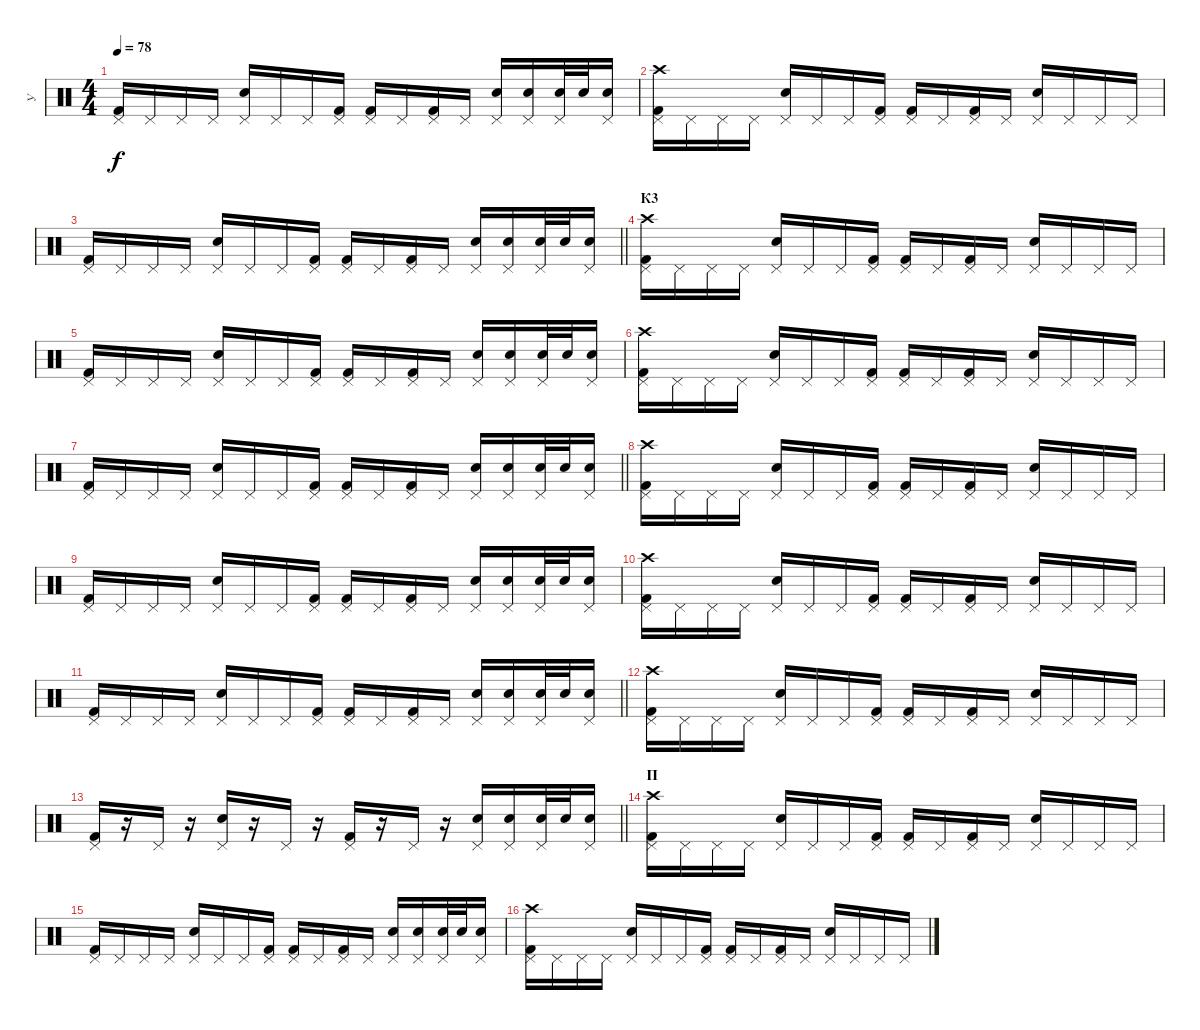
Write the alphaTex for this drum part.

\track ("У" "У") {instrument percussion}
\staff {score}
\articulation defaults
\ts (4 4)
\tempo 78
\clef neutral
\ks c
("Kick (hit) 2" "Pedal Hi-Hat (hit)").16{dy f} "Pedal Hi-Hat (hit)".16 "Pedal Hi-Hat (hit)".16 "Pedal Hi-Hat (hit)".16 ("Electric Snare (hit)" "Pedal Hi-Hat (hit)").16 "Pedal Hi-Hat (hit)".16 "Pedal Hi-Hat (hit)".16 ("Kick (hit) 2" "Pedal Hi-Hat (hit)").16 ("Kick (hit) 2" "Pedal Hi-Hat (hit)").16 "Pedal Hi-Hat (hit)".16 ("Kick (hit) 2" "Pedal Hi-Hat (hit)").16 "Pedal Hi-Hat (hit)".16 ("Electric Snare (hit)" "Pedal Hi-Hat (hit)").16 ("Electric Snare (hit)" "Pedal Hi-Hat (hit)").16 ("Electric Snare (hit)" "Pedal Hi-Hat (hit)").32 "Electric Snare (hit)".32 ("Electric Snare (hit)" "Pedal Hi-Hat (hit)").16 |
("Crash high (hit)" "Kick (hit) 2" "Pedal Hi-Hat (hit)").16 "Pedal Hi-Hat (hit)".16 "Pedal Hi-Hat (hit)".16 "Pedal Hi-Hat (hit)".16 ("Electric Snare (hit)" "Pedal Hi-Hat (hit)").16 "Pedal Hi-Hat (hit)".16 "Pedal Hi-Hat (hit)".16 ("Kick (hit) 2" "Pedal Hi-Hat (hit)").16 ("Kick (hit) 2" "Pedal Hi-Hat (hit)").16 "Pedal Hi-Hat (hit)".16 ("Kick (hit) 2" "Pedal Hi-Hat (hit)").16 "Pedal Hi-Hat (hit)".16 ("Electric Snare (hit)" "Pedal Hi-Hat (hit)").16 "Pedal Hi-Hat (hit)".16 "Pedal Hi-Hat (hit)".16 "Pedal Hi-Hat (hit)".16 |
\barLineRight lightlight
("Kick (hit) 2" "Pedal Hi-Hat (hit)").16 "Pedal Hi-Hat (hit)".16 "Pedal Hi-Hat (hit)".16 "Pedal Hi-Hat (hit)".16 ("Electric Snare (hit)" "Pedal Hi-Hat (hit)").16 "Pedal Hi-Hat (hit)".16 "Pedal Hi-Hat (hit)".16 ("Kick (hit) 2" "Pedal Hi-Hat (hit)").16 ("Kick (hit) 2" "Pedal Hi-Hat (hit)").16 "Pedal Hi-Hat (hit)".16 ("Kick (hit) 2" "Pedal Hi-Hat (hit)").16 "Pedal Hi-Hat (hit)".16 ("Electric Snare (hit)" "Pedal Hi-Hat (hit)").16 ("Electric Snare (hit)" "Pedal Hi-Hat (hit)").16 ("Electric Snare (hit)" "Pedal Hi-Hat (hit)").32 "Electric Snare (hit)".32 ("Electric Snare (hit)" "Pedal Hi-Hat (hit)").16 |
\section ("" "К3")
("Crash high (hit)" "Kick (hit) 2" "Pedal Hi-Hat (hit)").16 "Pedal Hi-Hat (hit)".16 "Pedal Hi-Hat (hit)".16 "Pedal Hi-Hat (hit)".16 ("Electric Snare (hit)" "Pedal Hi-Hat (hit)").16 "Pedal Hi-Hat (hit)".16 "Pedal Hi-Hat (hit)".16 ("Kick (hit) 2" "Pedal Hi-Hat (hit)").16 ("Kick (hit) 2" "Pedal Hi-Hat (hit)").16 "Pedal Hi-Hat (hit)".16 ("Kick (hit) 2" "Pedal Hi-Hat (hit)").16 "Pedal Hi-Hat (hit)".16 ("Electric Snare (hit)" "Pedal Hi-Hat (hit)").16 "Pedal Hi-Hat (hit)".16 "Pedal Hi-Hat (hit)".16 "Pedal Hi-Hat (hit)".16 |
("Kick (hit) 2" "Pedal Hi-Hat (hit)").16 "Pedal Hi-Hat (hit)".16 "Pedal Hi-Hat (hit)".16 "Pedal Hi-Hat (hit)".16 ("Electric Snare (hit)" "Pedal Hi-Hat (hit)").16 "Pedal Hi-Hat (hit)".16 "Pedal Hi-Hat (hit)".16 ("Kick (hit) 2" "Pedal Hi-Hat (hit)").16 ("Kick (hit) 2" "Pedal Hi-Hat (hit)").16 "Pedal Hi-Hat (hit)".16 ("Kick (hit) 2" "Pedal Hi-Hat (hit)").16 "Pedal Hi-Hat (hit)".16 ("Electric Snare (hit)" "Pedal Hi-Hat (hit)").16 ("Electric Snare (hit)" "Pedal Hi-Hat (hit)").16 ("Electric Snare (hit)" "Pedal Hi-Hat (hit)").32 "Electric Snare (hit)".32 ("Electric Snare (hit)" "Pedal Hi-Hat (hit)").16 |
("Crash high (hit)" "Kick (hit) 2" "Pedal Hi-Hat (hit)").16 "Pedal Hi-Hat (hit)".16 "Pedal Hi-Hat (hit)".16 "Pedal Hi-Hat (hit)".16 ("Electric Snare (hit)" "Pedal Hi-Hat (hit)").16 "Pedal Hi-Hat (hit)".16 "Pedal Hi-Hat (hit)".16 ("Kick (hit) 2" "Pedal Hi-Hat (hit)").16 ("Kick (hit) 2" "Pedal Hi-Hat (hit)").16 "Pedal Hi-Hat (hit)".16 ("Kick (hit) 2" "Pedal Hi-Hat (hit)").16 "Pedal Hi-Hat (hit)".16 ("Electric Snare (hit)" "Pedal Hi-Hat (hit)").16 "Pedal Hi-Hat (hit)".16 "Pedal Hi-Hat (hit)".16 "Pedal Hi-Hat (hit)".16 |
\barLineRight lightlight
("Kick (hit) 2" "Pedal Hi-Hat (hit)").16 "Pedal Hi-Hat (hit)".16 "Pedal Hi-Hat (hit)".16 "Pedal Hi-Hat (hit)".16 ("Electric Snare (hit)" "Pedal Hi-Hat (hit)").16 "Pedal Hi-Hat (hit)".16 "Pedal Hi-Hat (hit)".16 ("Kick (hit) 2" "Pedal Hi-Hat (hit)").16 ("Kick (hit) 2" "Pedal Hi-Hat (hit)").16 "Pedal Hi-Hat (hit)".16 ("Kick (hit) 2" "Pedal Hi-Hat (hit)").16 "Pedal Hi-Hat (hit)".16 ("Electric Snare (hit)" "Pedal Hi-Hat (hit)").16 ("Electric Snare (hit)" "Pedal Hi-Hat (hit)").16 ("Electric Snare (hit)" "Pedal Hi-Hat (hit)").32 "Electric Snare (hit)".32 ("Electric Snare (hit)" "Pedal Hi-Hat (hit)").16 |
("Crash high (hit)" "Kick (hit) 2" "Pedal Hi-Hat (hit)").16 "Pedal Hi-Hat (hit)".16 "Pedal Hi-Hat (hit)".16 "Pedal Hi-Hat (hit)".16 ("Electric Snare (hit)" "Pedal Hi-Hat (hit)").16 "Pedal Hi-Hat (hit)".16 "Pedal Hi-Hat (hit)".16 ("Kick (hit) 2" "Pedal Hi-Hat (hit)").16 ("Kick (hit) 2" "Pedal Hi-Hat (hit)").16 "Pedal Hi-Hat (hit)".16 ("Kick (hit) 2" "Pedal Hi-Hat (hit)").16 "Pedal Hi-Hat (hit)".16 ("Electric Snare (hit)" "Pedal Hi-Hat (hit)").16 "Pedal Hi-Hat (hit)".16 "Pedal Hi-Hat (hit)".16 "Pedal Hi-Hat (hit)".16 |
("Kick (hit) 2" "Pedal Hi-Hat (hit)").16 "Pedal Hi-Hat (hit)".16 "Pedal Hi-Hat (hit)".16 "Pedal Hi-Hat (hit)".16 ("Electric Snare (hit)" "Pedal Hi-Hat (hit)").16 "Pedal Hi-Hat (hit)".16 "Pedal Hi-Hat (hit)".16 ("Kick (hit) 2" "Pedal Hi-Hat (hit)").16 ("Kick (hit) 2" "Pedal Hi-Hat (hit)").16 "Pedal Hi-Hat (hit)".16 ("Kick (hit) 2" "Pedal Hi-Hat (hit)").16 "Pedal Hi-Hat (hit)".16 ("Electric Snare (hit)" "Pedal Hi-Hat (hit)").16 ("Electric Snare (hit)" "Pedal Hi-Hat (hit)").16 ("Electric Snare (hit)" "Pedal Hi-Hat (hit)").32 "Electric Snare (hit)".32 ("Electric Snare (hit)" "Pedal Hi-Hat (hit)").16 |
("Crash high (hit)" "Kick (hit) 2" "Pedal Hi-Hat (hit)").16 "Pedal Hi-Hat (hit)".16 "Pedal Hi-Hat (hit)".16 "Pedal Hi-Hat (hit)".16 ("Electric Snare (hit)" "Pedal Hi-Hat (hit)").16 "Pedal Hi-Hat (hit)".16 "Pedal Hi-Hat (hit)".16 ("Kick (hit) 2" "Pedal Hi-Hat (hit)").16 ("Kick (hit) 2" "Pedal Hi-Hat (hit)").16 "Pedal Hi-Hat (hit)".16 ("Kick (hit) 2" "Pedal Hi-Hat (hit)").16 "Pedal Hi-Hat (hit)".16 ("Electric Snare (hit)" "Pedal Hi-Hat (hit)").16 "Pedal Hi-Hat (hit)".16 "Pedal Hi-Hat (hit)".16 "Pedal Hi-Hat (hit)".16 |
\barLineRight lightlight
("Kick (hit) 2" "Pedal Hi-Hat (hit)").16 "Pedal Hi-Hat (hit)".16 "Pedal Hi-Hat (hit)".16 "Pedal Hi-Hat (hit)".16 ("Electric Snare (hit)" "Pedal Hi-Hat (hit)").16 "Pedal Hi-Hat (hit)".16 "Pedal Hi-Hat (hit)".16 ("Kick (hit) 2" "Pedal Hi-Hat (hit)").16 ("Kick (hit) 2" "Pedal Hi-Hat (hit)").16 "Pedal Hi-Hat (hit)".16 ("Kick (hit) 2" "Pedal Hi-Hat (hit)").16 "Pedal Hi-Hat (hit)".16 ("Electric Snare (hit)" "Pedal Hi-Hat (hit)").16 ("Electric Snare (hit)" "Pedal Hi-Hat (hit)").16 ("Electric Snare (hit)" "Pedal Hi-Hat (hit)").32 "Electric Snare (hit)".32 ("Electric Snare (hit)" "Pedal Hi-Hat (hit)").16 |
("Crash high (hit)" "Kick (hit) 2" "Pedal Hi-Hat (hit)").16 "Pedal Hi-Hat (hit)".16 "Pedal Hi-Hat (hit)".16 "Pedal Hi-Hat (hit)".16 ("Electric Snare (hit)" "Pedal Hi-Hat (hit)").16 "Pedal Hi-Hat (hit)".16 "Pedal Hi-Hat (hit)".16 ("Kick (hit) 2" "Pedal Hi-Hat (hit)").16 ("Kick (hit) 2" "Pedal Hi-Hat (hit)").16 "Pedal Hi-Hat (hit)".16 ("Kick (hit) 2" "Pedal Hi-Hat (hit)").16 "Pedal Hi-Hat (hit)".16 ("Electric Snare (hit)" "Pedal Hi-Hat (hit)").16 "Pedal Hi-Hat (hit)".16 "Pedal Hi-Hat (hit)".16 "Pedal Hi-Hat (hit)".16 |
\barLineRight lightlight
("Kick (hit) 2" "Pedal Hi-Hat (hit)").16 r.16 "Pedal Hi-Hat (hit)".16 r.16 ("Electric Snare (hit)" "Pedal Hi-Hat (hit)").16 r.16 "Pedal Hi-Hat (hit)".16 r.16 ("Kick (hit) 2" "Pedal Hi-Hat (hit)").16 r.16 "Pedal Hi-Hat (hit)".16 r.16 ("Electric Snare (hit)" "Pedal Hi-Hat (hit)").16 ("Electric Snare (hit)" "Pedal Hi-Hat (hit)").16 ("Electric Snare (hit)" "Pedal Hi-Hat (hit)").32 "Electric Snare (hit)".32 ("Electric Snare (hit)" "Pedal Hi-Hat (hit)").16 |
\section ("" "П")
("Crash high (hit)" "Kick (hit) 2" "Pedal Hi-Hat (hit)").16 "Pedal Hi-Hat (hit)".16 "Pedal Hi-Hat (hit)".16 "Pedal Hi-Hat (hit)".16 ("Electric Snare (hit)" "Pedal Hi-Hat (hit)").16 "Pedal Hi-Hat (hit)".16 "Pedal Hi-Hat (hit)".16 ("Kick (hit) 2" "Pedal Hi-Hat (hit)").16 ("Kick (hit) 2" "Pedal Hi-Hat (hit)").16 "Pedal Hi-Hat (hit)".16 ("Kick (hit) 2" "Pedal Hi-Hat (hit)").16 "Pedal Hi-Hat (hit)".16 ("Electric Snare (hit)" "Pedal Hi-Hat (hit)").16 "Pedal Hi-Hat (hit)".16 "Pedal Hi-Hat (hit)".16 "Pedal Hi-Hat (hit)".16 |
("Kick (hit) 2" "Pedal Hi-Hat (hit)").16 "Pedal Hi-Hat (hit)".16 "Pedal Hi-Hat (hit)".16 "Pedal Hi-Hat (hit)".16 ("Electric Snare (hit)" "Pedal Hi-Hat (hit)").16 "Pedal Hi-Hat (hit)".16 "Pedal Hi-Hat (hit)".16 ("Kick (hit) 2" "Pedal Hi-Hat (hit)").16 ("Kick (hit) 2" "Pedal Hi-Hat (hit)").16 "Pedal Hi-Hat (hit)".16 ("Kick (hit) 2" "Pedal Hi-Hat (hit)").16 "Pedal Hi-Hat (hit)".16 ("Electric Snare (hit)" "Pedal Hi-Hat (hit)").16 ("Electric Snare (hit)" "Pedal Hi-Hat (hit)").16 ("Electric Snare (hit)" "Pedal Hi-Hat (hit)").32 "Electric Snare (hit)".32 ("Electric Snare (hit)" "Pedal Hi-Hat (hit)").16 |
("Crash high (hit)" "Kick (hit) 2" "Pedal Hi-Hat (hit)").16 "Pedal Hi-Hat (hit)".16 "Pedal Hi-Hat (hit)".16 "Pedal Hi-Hat (hit)".16 ("Electric Snare (hit)" "Pedal Hi-Hat (hit)").16 "Pedal Hi-Hat (hit)".16 "Pedal Hi-Hat (hit)".16 ("Kick (hit) 2" "Pedal Hi-Hat (hit)").16 ("Kick (hit) 2" "Pedal Hi-Hat (hit)").16 "Pedal Hi-Hat (hit)".16 ("Kick (hit) 2" "Pedal Hi-Hat (hit)").16 "Pedal Hi-Hat (hit)".16 ("Electric Snare (hit)" "Pedal Hi-Hat (hit)").16 "Pedal Hi-Hat (hit)".16 "Pedal Hi-Hat (hit)".16 "Pedal Hi-Hat (hit)".16
